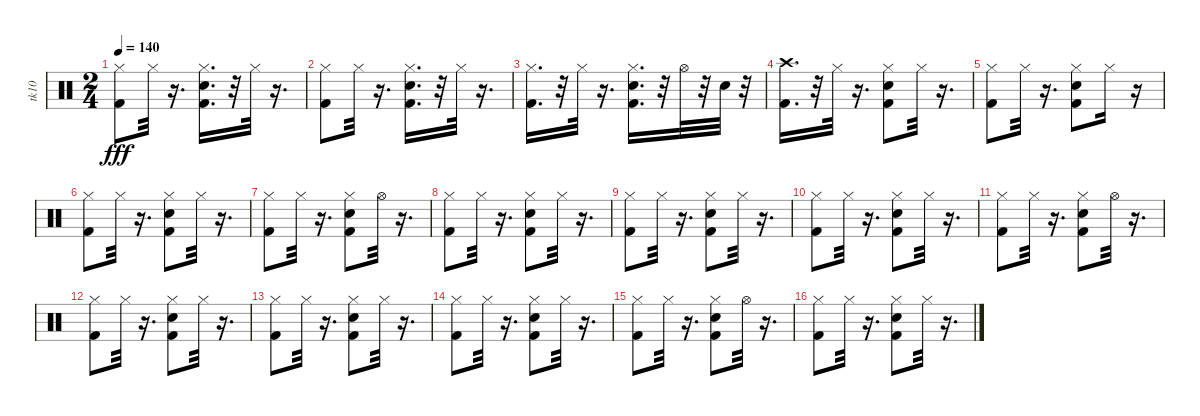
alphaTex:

\track ("tk10" "tk10") {instrument percussion}
\staff {score}
\articulation defaults
\ts (2 4)
\tempo 140
\clef neutral
\ks c
("Kick (hit) 2" "Hi-Hat (closed)").8{dy fff} "Hi-Hat (closed)".32 r.16{d} ("Snare (hit) 2" "Kick (hit) 2" "Hi-Hat (closed)").16{d} r.32 "Hi-Hat (closed)".32 r.16{d} |
("Kick (hit) 2" "Hi-Hat (closed)").8 "Hi-Hat (closed)".32 r.16{d} ("Snare (hit) 2" "Kick (hit) 2" "Hi-Hat (closed)").16{d} r.32 "Hi-Hat (closed)".32 r.16{d} |
("Kick (hit) 2" "Hi-Hat (closed)").16{d} r.32 "Hi-Hat (closed)".32 r.16{d} ("Kick (hit) 2" "Hi-Hat (closed)" "Snare (hit) 2").16{d} r.32 "Hi-Hat (open)".32 r.32 "Snare (hit) 2".32 r.32 |
("Kick (hit) 2" "Crash high (hit)").16{d} r.32 "Hi-Hat (closed)".32 r.16{d} ("Kick (hit) 2" "Snare (hit) 2" "Hi-Hat (closed)").8 "Hi-Hat (closed)".32 r.16{d} |
("Kick (hit) 2" "Hi-Hat (closed)").8 "Hi-Hat (closed)".32 r.16{d} ("Snare (hit) 2" "Kick (hit) 2" "Hi-Hat (closed)").8 "Hi-Hat (closed)".16 r.16 |
("Kick (hit) 2" "Hi-Hat (closed)").8 "Hi-Hat (closed)".32 r.16{d} ("Hi-Hat (closed)" "Snare (hit) 2" "Kick (hit) 2").8 "Hi-Hat (closed)".32 r.16{d} |
("Kick (hit) 2" "Hi-Hat (closed)").8 "Hi-Hat (closed)".32 r.16{d} ("Snare (hit) 2" "Hi-Hat (closed)" "Kick (hit) 2").8 "Hi-Hat (open)".32 r.16{d} |
("Kick (hit) 2" "Hi-Hat (closed)").8 "Hi-Hat (closed)".32 r.16{d} ("Kick (hit) 2" "Hi-Hat (closed)" "Snare (hit) 2").8 "Hi-Hat (closed)".32 r.16{d} |
("Kick (hit) 2" "Hi-Hat (closed)").8 "Hi-Hat (closed)".32 r.16{d} ("Kick (hit) 2" "Hi-Hat (closed)" "Snare (hit) 2").8 "Hi-Hat (closed)".32 r.16{d} |
("Kick (hit) 2" "Hi-Hat (closed)").8 "Hi-Hat (closed)".32 r.16{d} ("Snare (hit) 2" "Kick (hit) 2" "Hi-Hat (closed)").8 "Hi-Hat (closed)".32 r.16{d} |
("Kick (hit) 2" "Hi-Hat (closed)").8 "Hi-Hat (closed)".32 r.16{d} ("Snare (hit) 2" "Hi-Hat (closed)" "Kick (hit) 2").8 "Hi-Hat (open)".32 r.16{d} |
("Kick (hit) 2" "Hi-Hat (closed)").8 "Hi-Hat (closed)".32 r.16{d} ("Snare (hit) 2" "Kick (hit) 2" "Hi-Hat (closed)").8 "Hi-Hat (closed)".32 r.16{d} |
("Kick (hit) 2" "Hi-Hat (closed)").8 "Hi-Hat (closed)".32 r.16{d} ("Snare (hit) 2" "Kick (hit) 2" "Hi-Hat (closed)").8 "Hi-Hat (closed)".32 r.16{d} |
("Kick (hit) 2" "Hi-Hat (closed)").8 "Hi-Hat (closed)".32 r.16{d} ("Kick (hit) 2" "Hi-Hat (closed)" "Snare (hit) 2").8 "Hi-Hat (closed)".32 r.16{d} |
("Kick (hit) 2" "Hi-Hat (closed)").8 "Hi-Hat (closed)".32 r.16{d} ("Hi-Hat (closed)" "Snare (hit) 2" "Kick (hit) 2").8 "Hi-Hat (open)".32 r.16{d} |
("Kick (hit) 2" "Hi-Hat (closed)").8 "Hi-Hat (closed)".32 r.16{d} ("Kick (hit) 2" "Hi-Hat (closed)" "Snare (hit) 2").8 "Hi-Hat (closed)".32 r.16{d}
